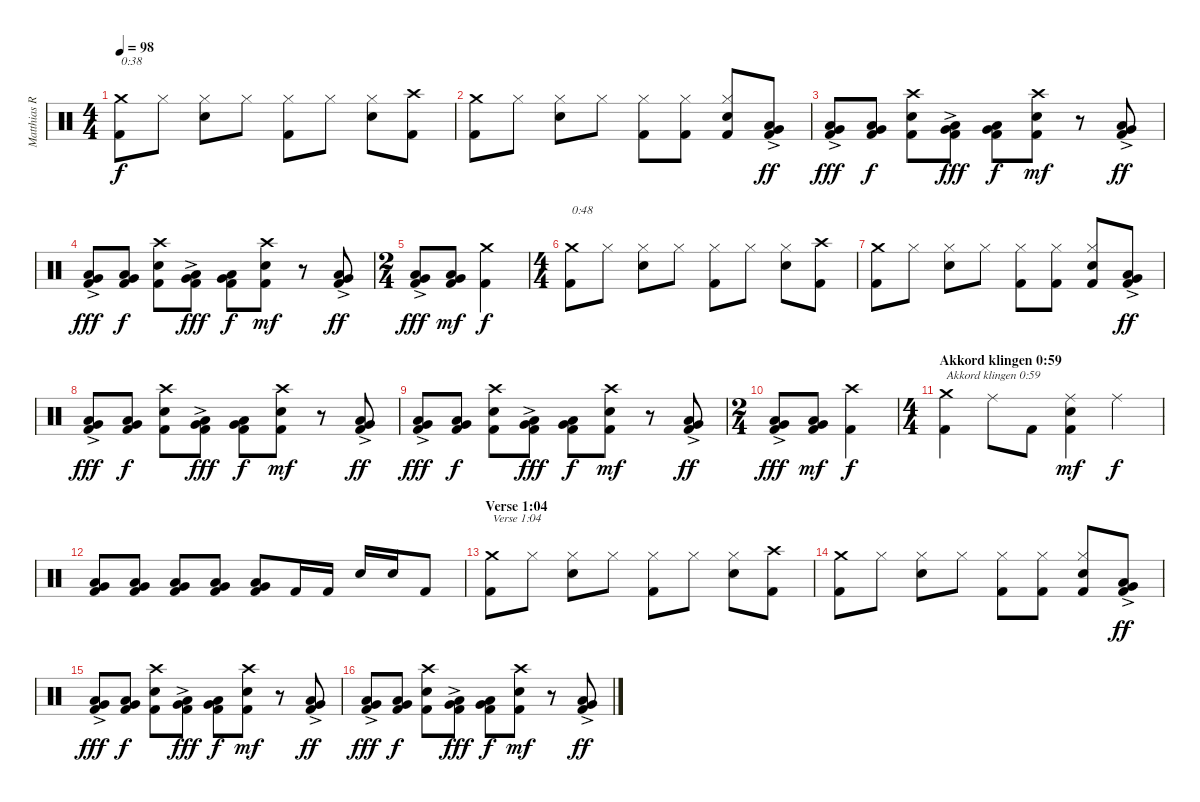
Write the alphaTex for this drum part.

\track ("Matthias R." "Matthias R") {instrument percussion}
\staff {score}
\articulation defaults
\ts (4 4)
\tempo 98
\clef neutral
\ks c
("Kick (hit) 2" "Crash medium (hit)").8{txt "0:38" dy f} "Hi-Hat (closed)".8 ("Electric Snare (hit)" "Hi-Hat (closed)").8 "Hi-Hat (closed)".8 ("Kick (hit) 2" "Hi-Hat (closed)").8 "Hi-Hat (closed)".8 ("Electric Snare (hit)" "Hi-Hat (closed)").8 ("Kick (hit) 2" "Crash high (hit)").8 |
("Kick (hit) 2" "Crash medium (hit)").8 "Hi-Hat (closed)".8 ("Electric Snare (hit)" "Hi-Hat (closed)").8 "Hi-Hat (closed)".8 ("Kick (hit) 2" "Hi-Hat (closed)").8 ("Kick (hit) 2" "Hi-Hat (closed)").8 ("Kick (hit) 2" "Electric Snare (hit)" "Hi-Hat (closed)").8 ("Kick (hit) 2" "Very Low Tom (hit)"{ac} "Low Tom (hit)"{ac}).8{dy ff} |
("Kick (hit) 2" "Very Low Tom (hit)"{ac} "Low Tom (hit)"{ac}).8{dy fff} ("Kick (hit) 2" "Very Low Tom (hit)" "Low Tom (hit)").8{dy f} ("Kick (hit) 2" "Electric Snare (hit)" "Crash high (hit)").8 ("Kick (hit) 2" "Very Low Tom (hit)"{ac} "Low Tom (hit)"{ac}).8{dy fff} ("Kick (hit) 2" "Very Low Tom (hit)" "Low Tom (hit)").8{dy f} ("Kick (hit) 2" "Electric Snare (hit)" "Crash high (hit)").8{dy mf} r.8 ("Kick (hit) 2" "Very Low Tom (hit)"{ac} "Low Tom (hit)"{ac}).8{dy ff} |
("Kick (hit) 2" "Very Low Tom (hit)"{ac} "Low Tom (hit)"{ac}).8{dy fff} ("Kick (hit) 2" "Very Low Tom (hit)" "Low Tom (hit)").8{dy f} ("Kick (hit) 2" "Electric Snare (hit)" "Crash high (hit)").8 ("Kick (hit) 2" "Very Low Tom (hit)"{ac} "Low Tom (hit)"{ac}).8{dy fff} ("Kick (hit) 2" "Very Low Tom (hit)" "Low Tom (hit)").8{dy f} ("Kick (hit) 2" "Electric Snare (hit)" "Crash high (hit)").8{dy mf} r.8 ("Kick (hit) 2" "Very Low Tom (hit)"{ac} "Low Tom (hit)"{ac}).8{dy ff} |
\ts (2 4)
("Kick (hit) 2" "Very Low Tom (hit)"{ac} "Low Tom (hit)"{ac}).8{dy fff} ("Kick (hit) 2" "Very Low Tom (hit)" "Low Tom (hit)").8{dy mf} ("Kick (hit) 2" "Crash medium (hit)").4{dy f} |
\ts (4 4)
("Kick (hit) 2" "Crash medium (hit)").8{txt "0:48"} "Hi-Hat (closed)".8 ("Electric Snare (hit)" "Hi-Hat (closed)").8 "Hi-Hat (closed)".8 ("Kick (hit) 2" "Hi-Hat (closed)").8 "Hi-Hat (closed)".8 ("Electric Snare (hit)" "Hi-Hat (closed)").8 ("Kick (hit) 2" "Crash high (hit)").8 |
("Kick (hit) 2" "Crash medium (hit)").8 "Hi-Hat (closed)".8 ("Electric Snare (hit)" "Hi-Hat (closed)").8 "Hi-Hat (closed)".8 ("Kick (hit) 2" "Hi-Hat (closed)").8 ("Kick (hit) 2" "Hi-Hat (closed)").8 ("Kick (hit) 2" "Electric Snare (hit)" "Hi-Hat (closed)").8 ("Kick (hit) 2" "Very Low Tom (hit)"{ac} "Low Tom (hit)"{ac}).8{dy ff} |
("Kick (hit) 2" "Very Low Tom (hit)"{ac} "Low Tom (hit)"{ac}).8{dy fff} ("Kick (hit) 2" "Very Low Tom (hit)" "Low Tom (hit)").8{dy f} ("Kick (hit) 2" "Electric Snare (hit)" "Crash high (hit)").8 ("Kick (hit) 2" "Very Low Tom (hit)"{ac} "Low Tom (hit)"{ac}).8{dy fff} ("Kick (hit) 2" "Very Low Tom (hit)" "Low Tom (hit)").8{dy f} ("Kick (hit) 2" "Electric Snare (hit)" "Crash high (hit)").8{dy mf} r.8 ("Kick (hit) 2" "Very Low Tom (hit)"{ac} "Low Tom (hit)"{ac}).8{dy ff} |
("Kick (hit) 2" "Very Low Tom (hit)"{ac} "Low Tom (hit)"{ac}).8{dy fff} ("Kick (hit) 2" "Very Low Tom (hit)" "Low Tom (hit)").8{dy f} ("Kick (hit) 2" "Electric Snare (hit)" "Crash high (hit)").8 ("Kick (hit) 2" "Very Low Tom (hit)"{ac} "Low Tom (hit)"{ac}).8{dy fff} ("Kick (hit) 2" "Very Low Tom (hit)" "Low Tom (hit)").8{dy f} ("Kick (hit) 2" "Electric Snare (hit)" "Crash high (hit)").8{dy mf} r.8 ("Kick (hit) 2" "Very Low Tom (hit)"{ac} "Low Tom (hit)"{ac}).8{dy ff} |
\ts (2 4)
("Kick (hit) 2" "Very Low Tom (hit)"{ac} "Low Tom (hit)"{ac}).8{dy fff} ("Kick (hit) 2" "Very Low Tom (hit)" "Low Tom (hit)").8{dy mf} ("Kick (hit) 2" "Crash high (hit)").4{dy f} |
\ts (4 4)
\section ("" "Akkord klingen 0:59")
("Kick (hit) 2" "Crash medium (hit)").4{txt "Akkord klingen 0:59"} "Ride (middle)".8 "Kick (hit) 2".8 ("Kick (hit) 2" "Electric Snare (hit)" "Ride (middle)").4{dy mf} "Ride (middle)".4{dy f} |
("Kick (hit) 2" "Very Low Tom (hit)" "Low Tom (hit)").8 ("Kick (hit) 2" "Very Low Tom (hit)" "Low Tom (hit)").8 ("Kick (hit) 2" "Very Low Tom (hit)" "Low Tom (hit)").8 ("Kick (hit) 2" "Very Low Tom (hit)" "Low Tom (hit)").8 ("Kick (hit) 2" "Very Low Tom (hit)" "Low Tom (hit)").8 "Kick (hit) 2".16 "Kick (hit) 2".16 "Electric Snare (hit)".16 "Electric Snare (hit)".16 "Kick (hit) 2".8 |
\section ("" "Verse 1:04")
("Kick (hit) 2" "Crash medium (hit)").8{txt "Verse 1:04"} "Hi-Hat (closed)".8 ("Electric Snare (hit)" "Hi-Hat (closed)").8 "Hi-Hat (closed)".8 ("Kick (hit) 2" "Hi-Hat (closed)").8 "Hi-Hat (closed)".8 ("Electric Snare (hit)" "Hi-Hat (closed)").8 ("Kick (hit) 2" "Crash high (hit)").8 |
("Kick (hit) 2" "Crash medium (hit)").8 "Hi-Hat (closed)".8 ("Electric Snare (hit)" "Hi-Hat (closed)").8 "Hi-Hat (closed)".8 ("Kick (hit) 2" "Hi-Hat (closed)").8 ("Kick (hit) 2" "Hi-Hat (closed)").8 ("Kick (hit) 2" "Electric Snare (hit)" "Hi-Hat (closed)").8 ("Kick (hit) 2" "Very Low Tom (hit)"{ac} "Low Tom (hit)"{ac}).8{dy ff} |
("Kick (hit) 2" "Very Low Tom (hit)"{ac} "Low Tom (hit)"{ac}).8{dy fff} ("Kick (hit) 2" "Very Low Tom (hit)" "Low Tom (hit)").8{dy f} ("Kick (hit) 2" "Electric Snare (hit)" "Crash high (hit)").8 ("Kick (hit) 2" "Very Low Tom (hit)"{ac} "Low Tom (hit)"{ac}).8{dy fff} ("Kick (hit) 2" "Very Low Tom (hit)" "Low Tom (hit)").8{dy f} ("Kick (hit) 2" "Electric Snare (hit)" "Crash high (hit)").8{dy mf} r.8 ("Kick (hit) 2" "Very Low Tom (hit)"{ac} "Low Tom (hit)"{ac}).8{dy ff} |
("Kick (hit) 2" "Very Low Tom (hit)"{ac} "Low Tom (hit)"{ac}).8{dy fff} ("Kick (hit) 2" "Very Low Tom (hit)" "Low Tom (hit)").8{dy f} ("Kick (hit) 2" "Electric Snare (hit)" "Crash high (hit)").8 ("Kick (hit) 2" "Very Low Tom (hit)"{ac} "Low Tom (hit)"{ac}).8{dy fff} ("Kick (hit) 2" "Very Low Tom (hit)" "Low Tom (hit)").8{dy f} ("Kick (hit) 2" "Electric Snare (hit)" "Crash high (hit)").8{dy mf} r.8 ("Kick (hit) 2" "Very Low Tom (hit)"{ac} "Low Tom (hit)"{ac}).8{dy ff}
